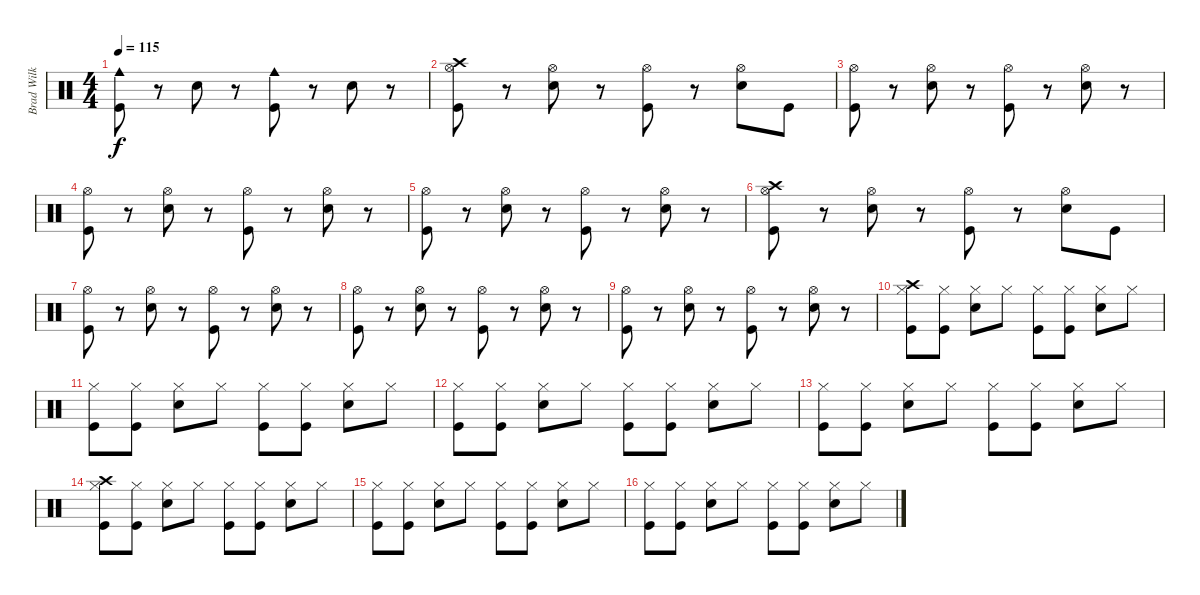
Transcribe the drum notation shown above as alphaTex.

\track ("Brad Wilk - Drums" "Brad Wilk ") {instrument percussion}
\staff {score}
\articulation defaults
\ts (4 4)
\tempo 115
\clef neutral
\ks c
("Cowbell medium (hit)" "Kick (hit)").8{dy f} r.8 "Snare (hit) 2".8 r.8 ("Cowbell medium (hit)" "Kick (hit)").8 r.8 "Snare (hit) 2".8 r.8 |
("Crash high (hit)" "Hi-Hat (open)" "Kick (hit)").8 r.8 ("Snare (hit) 2" "Hi-Hat (open)").8 r.8 ("Hi-Hat (open)" "Kick (hit)").8 r.8 ("Snare (hit) 2" "Hi-Hat (open)").8 "Kick (hit)".8 |
("Hi-Hat (open)" "Kick (hit)").8 r.8 ("Snare (hit) 2" "Hi-Hat (open)").8 r.8 ("Hi-Hat (open)" "Kick (hit)").8 r.8 ("Snare (hit) 2" "Hi-Hat (open)").8 r.8 |
("Hi-Hat (open)" "Kick (hit)").8 r.8 ("Snare (hit) 2" "Hi-Hat (open)").8 r.8 ("Hi-Hat (open)" "Kick (hit)").8 r.8 ("Snare (hit) 2" "Hi-Hat (open)").8 r.8 |
("Hi-Hat (open)" "Kick (hit)").8 r.8 ("Snare (hit) 2" "Hi-Hat (open)").8 r.8 ("Hi-Hat (open)" "Kick (hit)").8 r.8 ("Snare (hit) 2" "Hi-Hat (open)").8 r.8 |
("Crash high (hit)" "Hi-Hat (open)" "Kick (hit)").8 r.8 ("Snare (hit) 2" "Hi-Hat (open)").8 r.8 ("Hi-Hat (open)" "Kick (hit)").8 r.8 ("Snare (hit) 2" "Hi-Hat (open)").8 "Kick (hit)".8 |
("Hi-Hat (open)" "Kick (hit)").8 r.8 ("Snare (hit) 2" "Hi-Hat (open)").8 r.8 ("Hi-Hat (open)" "Kick (hit)").8 r.8 ("Snare (hit) 2" "Hi-Hat (open)").8 r.8 |
("Hi-Hat (open)" "Kick (hit)").8 r.8 ("Snare (hit) 2" "Hi-Hat (open)").8 r.8 ("Hi-Hat (open)" "Kick (hit)").8 r.8 ("Snare (hit) 2" "Hi-Hat (open)").8 r.8 |
("Hi-Hat (open)" "Kick (hit)").8 r.8 ("Snare (hit) 2" "Hi-Hat (open)").8 r.8 ("Hi-Hat (open)" "Kick (hit)").8 r.8 ("Snare (hit) 2" "Hi-Hat (open)").8 r.8 |
("Crash high (hit)" "Hi-Hat (closed)" "Kick (hit)").8 ("Hi-Hat (closed)" "Kick (hit)").8 ("Snare (hit) 2" "Hi-Hat (closed)").8 "Hi-Hat (closed)".8 ("Hi-Hat (closed)" "Kick (hit)").8 ("Hi-Hat (closed)" "Kick (hit)").8 ("Snare (hit) 2" "Hi-Hat (closed)").8 "Hi-Hat (closed)".8 |
("Hi-Hat (closed)" "Kick (hit)").8 ("Hi-Hat (closed)" "Kick (hit)").8 ("Snare (hit) 2" "Hi-Hat (closed)").8 "Hi-Hat (closed)".8 ("Hi-Hat (closed)" "Kick (hit)").8 ("Hi-Hat (closed)" "Kick (hit)").8 ("Snare (hit) 2" "Hi-Hat (closed)").8 "Hi-Hat (closed)".8 |
("Hi-Hat (closed)" "Kick (hit)").8 ("Hi-Hat (closed)" "Kick (hit)").8 ("Snare (hit) 2" "Hi-Hat (closed)").8 "Hi-Hat (closed)".8 ("Hi-Hat (closed)" "Kick (hit)").8 ("Hi-Hat (closed)" "Kick (hit)").8 ("Snare (hit) 2" "Hi-Hat (closed)").8 "Hi-Hat (closed)".8 |
("Hi-Hat (closed)" "Kick (hit)").8 ("Hi-Hat (closed)" "Kick (hit)").8 ("Snare (hit) 2" "Hi-Hat (closed)").8 "Hi-Hat (closed)".8 ("Hi-Hat (closed)" "Kick (hit)").8 ("Hi-Hat (closed)" "Kick (hit)").8 ("Snare (hit) 2" "Hi-Hat (closed)").8 "Hi-Hat (closed)".8 |
("Crash high (hit)" "Hi-Hat (closed)" "Kick (hit)").8 ("Hi-Hat (closed)" "Kick (hit)").8 ("Snare (hit) 2" "Hi-Hat (closed)").8 "Hi-Hat (closed)".8 ("Hi-Hat (closed)" "Kick (hit)").8 ("Hi-Hat (closed)" "Kick (hit)").8 ("Snare (hit) 2" "Hi-Hat (closed)").8 "Hi-Hat (closed)".8 |
("Hi-Hat (closed)" "Kick (hit)").8 ("Hi-Hat (closed)" "Kick (hit)").8 ("Snare (hit) 2" "Hi-Hat (closed)").8 "Hi-Hat (closed)".8 ("Hi-Hat (closed)" "Kick (hit)").8 ("Hi-Hat (closed)" "Kick (hit)").8 ("Snare (hit) 2" "Hi-Hat (closed)").8 "Hi-Hat (closed)".8 |
("Hi-Hat (closed)" "Kick (hit)").8 ("Hi-Hat (closed)" "Kick (hit)").8 ("Snare (hit) 2" "Hi-Hat (closed)").8 "Hi-Hat (closed)".8 ("Hi-Hat (closed)" "Kick (hit)").8 ("Hi-Hat (closed)" "Kick (hit)").8 ("Snare (hit) 2" "Hi-Hat (closed)").8 "Hi-Hat (closed)".8
